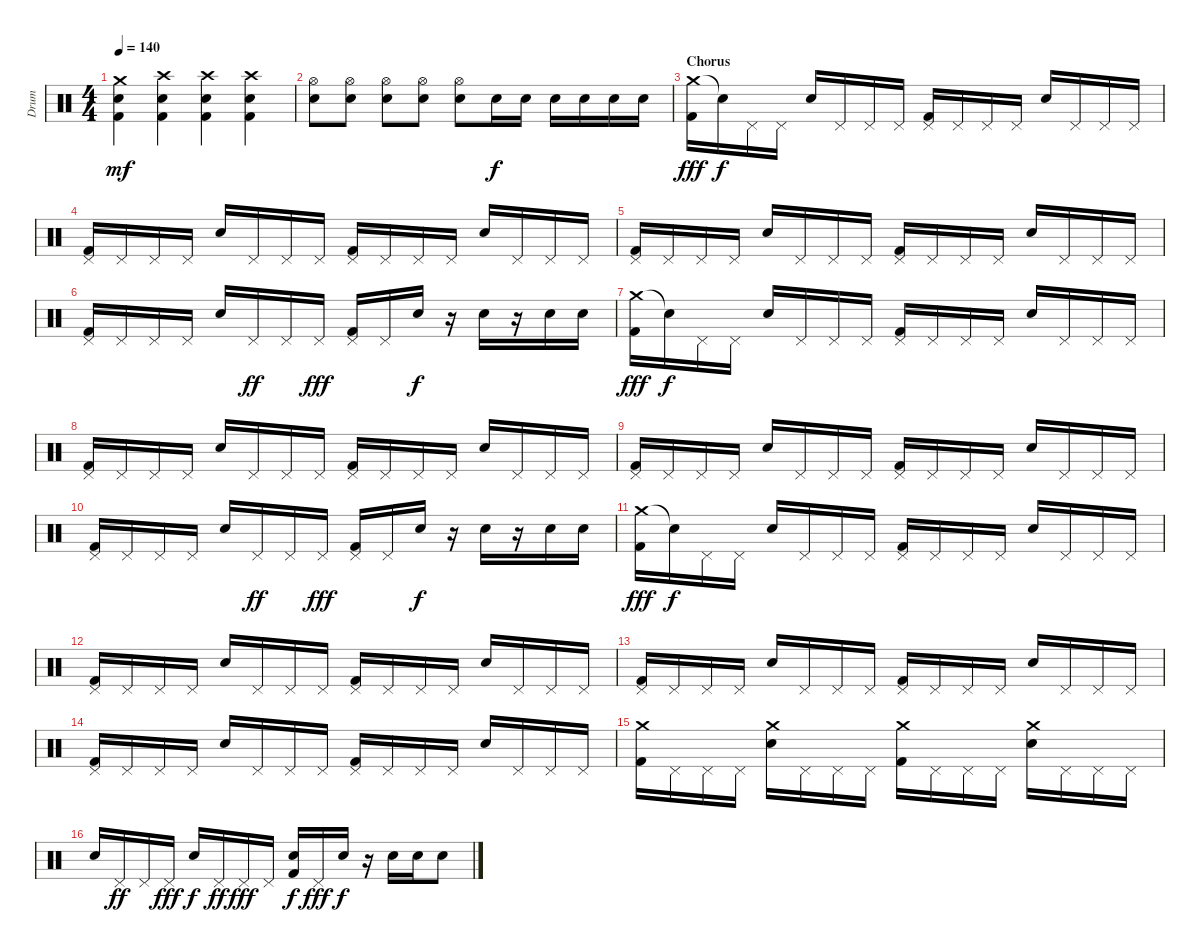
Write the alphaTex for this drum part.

\track ("Drum" "Drum") {instrument percussion}
\staff {score}
\articulation defaults
\ts (4 4)
\tempo 140
\clef neutral
\ks c
("Crash medium (hit)" "Snare (hit) 2" "Kick (hit) 2").4{dy mf} ("Crash high (hit)" "Snare (hit) 2" "Kick (hit) 2").4 ("Crash high (hit)" "Snare (hit) 2" "Kick (hit) 2").4 ("Crash high (hit)" "Snare (hit) 2" "Kick (hit) 2").4 |
("Hi-Hat (open)" "Snare (hit) 2").8 ("Hi-Hat (open)" "Snare (hit) 2").8 ("Hi-Hat (open)" "Snare (hit) 2").8 ("Hi-Hat (open)" "Snare (hit) 2").8 ("Hi-Hat (open)" "Snare (hit) 2").8 "Snare (hit) 2".16{dy f} "Snare (hit) 2".16 "Snare (hit) 2".16 "Snare (hit) 2".16 "Snare (hit) 2".16 "Snare (hit) 2".16 |
\section ("" "Chorus")
("Crash medium (hit)" "Kick (hit) 2").16{dy fff} "Snare (hit)"{t}.16{dy f} "Pedal Hi-Hat (hit)".16 "Pedal Hi-Hat (hit)".16 "Snare (hit) 2".16 "Pedal Hi-Hat (hit)".16 "Pedal Hi-Hat (hit)".16 "Pedal Hi-Hat (hit)".16 ("Pedal Hi-Hat (hit)" "Kick (hit) 2").16 "Pedal Hi-Hat (hit)".16 "Pedal Hi-Hat (hit)".16 "Pedal Hi-Hat (hit)".16 "Snare (hit) 2".16 "Pedal Hi-Hat (hit)".16 "Pedal Hi-Hat (hit)".16 "Pedal Hi-Hat (hit)".16 |
("Pedal Hi-Hat (hit)" "Kick (hit) 2").16 "Pedal Hi-Hat (hit)".16 "Pedal Hi-Hat (hit)".16 "Pedal Hi-Hat (hit)".16 "Snare (hit) 2".16 "Pedal Hi-Hat (hit)".16 "Pedal Hi-Hat (hit)".16 "Pedal Hi-Hat (hit)".16 ("Pedal Hi-Hat (hit)" "Kick (hit) 2").16 "Pedal Hi-Hat (hit)".16 "Pedal Hi-Hat (hit)".16 "Pedal Hi-Hat (hit)".16 "Snare (hit) 2".16 "Pedal Hi-Hat (hit)".16 "Pedal Hi-Hat (hit)".16 "Pedal Hi-Hat (hit)".16 |
("Pedal Hi-Hat (hit)" "Kick (hit) 2").16 "Pedal Hi-Hat (hit)".16 "Pedal Hi-Hat (hit)".16 "Pedal Hi-Hat (hit)".16 "Snare (hit) 2".16 "Pedal Hi-Hat (hit)".16 "Pedal Hi-Hat (hit)".16 "Pedal Hi-Hat (hit)".16 ("Pedal Hi-Hat (hit)" "Kick (hit) 2").16 "Pedal Hi-Hat (hit)".16 "Pedal Hi-Hat (hit)".16 "Pedal Hi-Hat (hit)".16 "Snare (hit) 2".16 "Pedal Hi-Hat (hit)".16 "Pedal Hi-Hat (hit)".16 "Pedal Hi-Hat (hit)".16 |
("Pedal Hi-Hat (hit)" "Kick (hit) 2").16 "Pedal Hi-Hat (hit)".16 "Pedal Hi-Hat (hit)".16 "Pedal Hi-Hat (hit)".16 "Snare (hit) 2".16 "Pedal Hi-Hat (hit)".16{dy ff} "Pedal Hi-Hat (hit)".16 "Pedal Hi-Hat (hit)".16{dy fff} ("Pedal Hi-Hat (hit)" "Kick (hit) 2").16 "Pedal Hi-Hat (hit)".16 "Snare (hit) 2".16{dy f} r.16 "Snare (hit) 2".16 r.16 "Snare (hit) 2".16 "Snare (hit) 2".16 |
("Crash medium (hit)" "Kick (hit) 2").16{dy fff} "Snare (hit)"{t}.16{dy f} "Pedal Hi-Hat (hit)".16 "Pedal Hi-Hat (hit)".16 "Snare (hit) 2".16 "Pedal Hi-Hat (hit)".16 "Pedal Hi-Hat (hit)".16 "Pedal Hi-Hat (hit)".16 ("Pedal Hi-Hat (hit)" "Kick (hit) 2").16 "Pedal Hi-Hat (hit)".16 "Pedal Hi-Hat (hit)".16 "Pedal Hi-Hat (hit)".16 "Snare (hit) 2".16 "Pedal Hi-Hat (hit)".16 "Pedal Hi-Hat (hit)".16 "Pedal Hi-Hat (hit)".16 |
("Pedal Hi-Hat (hit)" "Kick (hit) 2").16 "Pedal Hi-Hat (hit)".16 "Pedal Hi-Hat (hit)".16 "Pedal Hi-Hat (hit)".16 "Snare (hit) 2".16 "Pedal Hi-Hat (hit)".16 "Pedal Hi-Hat (hit)".16 "Pedal Hi-Hat (hit)".16 ("Pedal Hi-Hat (hit)" "Kick (hit) 2").16 "Pedal Hi-Hat (hit)".16 "Pedal Hi-Hat (hit)".16 "Pedal Hi-Hat (hit)".16 "Snare (hit) 2".16 "Pedal Hi-Hat (hit)".16 "Pedal Hi-Hat (hit)".16 "Pedal Hi-Hat (hit)".16 |
("Pedal Hi-Hat (hit)" "Kick (hit) 2").16 "Pedal Hi-Hat (hit)".16 "Pedal Hi-Hat (hit)".16 "Pedal Hi-Hat (hit)".16 "Snare (hit) 2".16 "Pedal Hi-Hat (hit)".16 "Pedal Hi-Hat (hit)".16 "Pedal Hi-Hat (hit)".16 ("Pedal Hi-Hat (hit)" "Kick (hit) 2").16 "Pedal Hi-Hat (hit)".16 "Pedal Hi-Hat (hit)".16 "Pedal Hi-Hat (hit)".16 "Snare (hit) 2".16 "Pedal Hi-Hat (hit)".16 "Pedal Hi-Hat (hit)".16 "Pedal Hi-Hat (hit)".16 |
("Pedal Hi-Hat (hit)" "Kick (hit) 2").16 "Pedal Hi-Hat (hit)".16 "Pedal Hi-Hat (hit)".16 "Pedal Hi-Hat (hit)".16 "Snare (hit) 2".16 "Pedal Hi-Hat (hit)".16{dy ff} "Pedal Hi-Hat (hit)".16 "Pedal Hi-Hat (hit)".16{dy fff} ("Pedal Hi-Hat (hit)" "Kick (hit) 2").16 "Pedal Hi-Hat (hit)".16 "Snare (hit) 2".16{dy f} r.16 "Snare (hit) 2".16 r.16 "Snare (hit) 2".16 "Snare (hit) 2".16 |
("Crash medium (hit)" "Kick (hit) 2").16{dy fff} "Snare (hit)"{t}.16{dy f} "Pedal Hi-Hat (hit)".16 "Pedal Hi-Hat (hit)".16 "Snare (hit) 2".16 "Pedal Hi-Hat (hit)".16 "Pedal Hi-Hat (hit)".16 "Pedal Hi-Hat (hit)".16 ("Pedal Hi-Hat (hit)" "Kick (hit) 2").16 "Pedal Hi-Hat (hit)".16 "Pedal Hi-Hat (hit)".16 "Pedal Hi-Hat (hit)".16 "Snare (hit) 2".16 "Pedal Hi-Hat (hit)".16 "Pedal Hi-Hat (hit)".16 "Pedal Hi-Hat (hit)".16 |
("Pedal Hi-Hat (hit)" "Kick (hit) 2").16 "Pedal Hi-Hat (hit)".16 "Pedal Hi-Hat (hit)".16 "Pedal Hi-Hat (hit)".16 "Snare (hit) 2".16 "Pedal Hi-Hat (hit)".16 "Pedal Hi-Hat (hit)".16 "Pedal Hi-Hat (hit)".16 ("Pedal Hi-Hat (hit)" "Kick (hit) 2").16 "Pedal Hi-Hat (hit)".16 "Pedal Hi-Hat (hit)".16 "Pedal Hi-Hat (hit)".16 "Snare (hit) 2".16 "Pedal Hi-Hat (hit)".16 "Pedal Hi-Hat (hit)".16 "Pedal Hi-Hat (hit)".16 |
("Pedal Hi-Hat (hit)" "Kick (hit) 2").16 "Pedal Hi-Hat (hit)".16 "Pedal Hi-Hat (hit)".16 "Pedal Hi-Hat (hit)".16 "Snare (hit) 2".16 "Pedal Hi-Hat (hit)".16 "Pedal Hi-Hat (hit)".16 "Pedal Hi-Hat (hit)".16 ("Pedal Hi-Hat (hit)" "Kick (hit) 2").16 "Pedal Hi-Hat (hit)".16 "Pedal Hi-Hat (hit)".16 "Pedal Hi-Hat (hit)".16 "Snare (hit) 2".16 "Pedal Hi-Hat (hit)".16 "Pedal Hi-Hat (hit)".16 "Pedal Hi-Hat (hit)".16 |
("Pedal Hi-Hat (hit)" "Kick (hit) 2").16 "Pedal Hi-Hat (hit)".16 "Pedal Hi-Hat (hit)".16 "Pedal Hi-Hat (hit)".16 "Snare (hit) 2".16 "Pedal Hi-Hat (hit)".16 "Pedal Hi-Hat (hit)".16 "Pedal Hi-Hat (hit)".16 ("Pedal Hi-Hat (hit)" "Kick (hit) 2").16 "Pedal Hi-Hat (hit)".16 "Pedal Hi-Hat (hit)".16 "Pedal Hi-Hat (hit)".16 "Snare (hit) 2".16 "Pedal Hi-Hat (hit)".16 "Pedal Hi-Hat (hit)".16 "Pedal Hi-Hat (hit)".16 |
("Crash medium (hit)" "Kick (hit) 2").16 "Pedal Hi-Hat (hit)".16 "Pedal Hi-Hat (hit)".16 "Pedal Hi-Hat (hit)".16 ("Crash medium (hit)" "Snare (hit) 2").16 "Pedal Hi-Hat (hit)".16 "Pedal Hi-Hat (hit)".16 "Pedal Hi-Hat (hit)".16 ("Crash medium (hit)" "Kick (hit) 2").16 "Pedal Hi-Hat (hit)".16 "Pedal Hi-Hat (hit)".16 "Pedal Hi-Hat (hit)".16 ("Crash medium (hit)" "Snare (hit) 2").16 "Pedal Hi-Hat (hit)".16 "Pedal Hi-Hat (hit)".16 "Pedal Hi-Hat (hit)".16 |
"Snare (hit) 2".16 "Pedal Hi-Hat (hit)".16{dy ff} "Pedal Hi-Hat (hit)".16 "Pedal Hi-Hat (hit)".16{dy fff} "Snare (hit) 2".16{dy f} "Pedal Hi-Hat (hit)".16{dy ff} "Pedal Hi-Hat (hit)".16{dy fff} "Pedal Hi-Hat (hit)".16 ("Snare (hit) 2" "Kick (hit) 2").16{dy f} "Pedal Hi-Hat (hit)".16{dy fff} "Snare (hit) 2".16{dy f} r.16 "Snare (hit) 2".16 "Snare (hit) 2".16 "Snare (hit) 2".8
